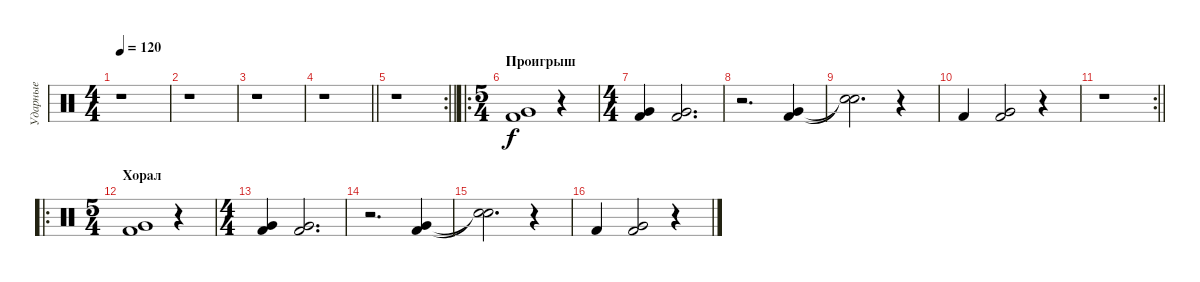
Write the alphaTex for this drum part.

\track ("Ударные" "Ударные") {instrument percussion}
\staff {score}
\articulation defaults
\ts (4 4)
\tempo 120
\clef neutral
\ks c
r.1{dy f} |
r.1 |
r.1 |
\barLineRight lightlight
r.1 |
\rc 2
\barLineRight lightlight
r.1 |
\ro
\ts (5 4)
\section ("" "Проигрыш")
("Very Low Tom (hit)" "Kick (hit) 2").1 r.4 |
\ts (4 4)
("Very Low Tom (hit)" "Kick (hit) 2").4 ("Very Low Tom (hit)" "Kick (hit) 2").2{d} |
r.2{d} ("Very Low Tom (hit)" "Kick (hit) 2").4 |
("Snare (hit)"{t} "Snare (hit)"{t}).2{d} r.4 |
"Kick (hit) 2".4 ("Very Low Tom (hit)" "Kick (hit) 2").2 r.4 |
\rc 2
\barLineRight lightlight
r.1 |
\ro
\ts (5 4)
\section ("" "Хорал")
("Very Low Tom (hit)" "Kick (hit) 2").1 r.4 |
\ts (4 4)
("Very Low Tom (hit)" "Kick (hit) 2").4 ("Very Low Tom (hit)" "Kick (hit) 2").2{d} |
r.2{d} ("Very Low Tom (hit)" "Kick (hit) 2").4 |
("Snare (hit)"{t} "Snare (hit)"{t}).2{d} r.4 |
"Kick (hit) 2".4 ("Very Low Tom (hit)" "Kick (hit) 2").2 r.4
